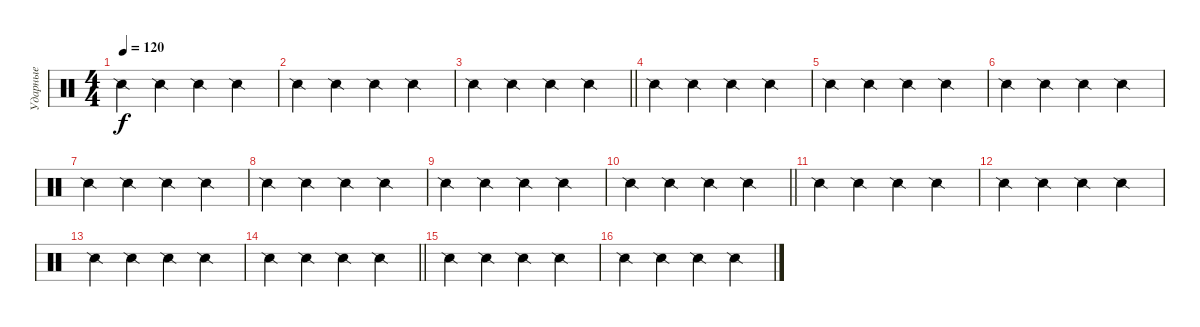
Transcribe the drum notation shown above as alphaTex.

\track ("Ударные" "Ударные") {instrument percussion}
\staff {score}
\articulation defaults
\ts (4 4)
\tempo 120
\clef neutral
\ks c "Snare (side stick) 2".4{dy f} "Snare (side stick) 2".4 "Snare (side stick) 2".4 "Snare (side stick) 2".4
|
"Snare (side stick) 2".4 "Snare (side stick) 2".4 "Snare (side stick) 2".4 "Snare (side stick) 2".4 |
\barLineRight lightlight "Snare (side stick) 2".4 "Snare (side stick) 2".4 "Snare (side stick) 2".4 "Snare (side stick) 2".4
|
"Snare (side stick) 2".4 "Snare (side stick) 2".4 "Snare (side stick) 2".4 "Snare (side stick) 2".4 |
"Snare (side stick) 2".4 "Snare (side stick) 2".4 "Snare (side stick) 2".4 "Snare (side stick) 2".4 |
"Snare (side stick) 2".4 "Snare (side stick) 2".4 "Snare (side stick) 2".4 "Snare (side stick) 2".4 |
"Snare (side stick) 2".4 "Snare (side stick) 2".4 "Snare (side stick) 2".4 "Snare (side stick) 2".4 |
"Snare (side stick) 2".4 "Snare (side stick) 2".4 "Snare (side stick) 2".4 "Snare (side stick) 2".4 |
"Snare (side stick) 2".4 "Snare (side stick) 2".4 "Snare (side stick) 2".4 "Snare (side stick) 2".4 |
\barLineRight lightlight "Snare (side stick) 2".4 "Snare (side stick) 2".4 "Snare (side stick) 2".4 "Snare (side stick) 2".4
|
"Snare (side stick) 2".4 "Snare (side stick) 2".4 "Snare (side stick) 2".4 "Snare (side stick) 2".4 |
"Snare (side stick) 2".4 "Snare (side stick) 2".4 "Snare (side stick) 2".4 "Snare (side stick) 2".4 |
"Snare (side stick) 2".4 "Snare (side stick) 2".4 "Snare (side stick) 2".4 "Snare (side stick) 2".4 |
\barLineRight lightlight "Snare (side stick) 2".4 "Snare (side stick) 2".4 "Snare (side stick) 2".4 "Snare (side stick) 2".4
|
"Snare (side stick) 2".4 "Snare (side stick) 2".4 "Snare (side stick) 2".4 "Snare (side stick) 2".4 |
"Snare (side stick) 2".4 "Snare (side stick) 2".4 "Snare (side stick) 2".4 "Snare (side stick) 2".4
